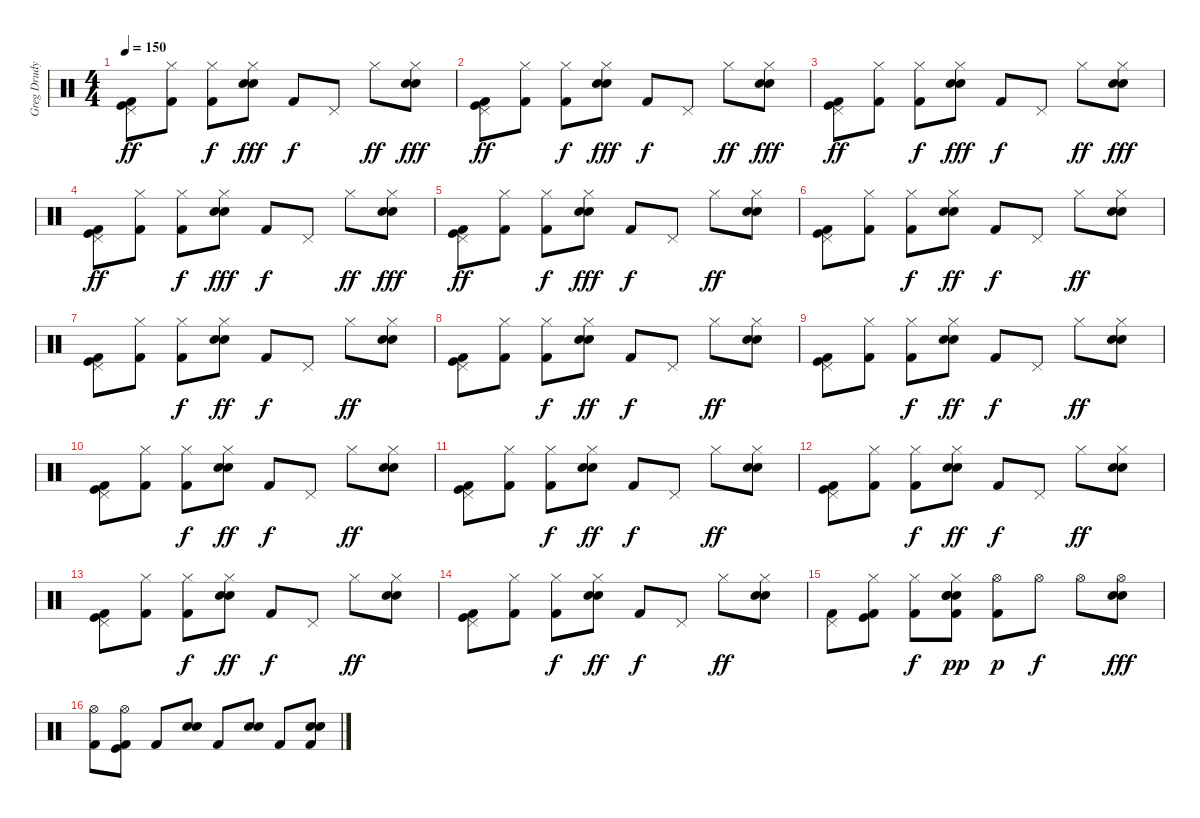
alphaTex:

\track ("Greg Drudy" "Greg Drudy") {instrument percussion}
\staff {score}
\articulation defaults
\ts (4 4)
\tempo 150
\clef neutral
\ks c
("Pedal Hi-Hat (hit)" "Kick (hit)" "Kick (hit) 2").8{dy ff} ("Hi-Hat (closed)" "Kick (hit) 2").8 ("Hi-Hat (closed)" "Kick (hit) 2").8{dy f} ("Hi-Hat (closed)" "Snare (hit) 2" "Snare (hit) 2").8{dy fff} "Kick (hit) 2".8{dy f} "Pedal Hi-Hat (hit)".8 "Hi-Hat (closed)".8{dy ff} ("Hi-Hat (closed)" "Snare (hit) 2" "Snare (hit) 2").8{dy fff} |
("Pedal Hi-Hat (hit)" "Kick (hit)" "Kick (hit) 2").8{dy ff} ("Hi-Hat (closed)" "Kick (hit) 2").8 ("Hi-Hat (closed)" "Kick (hit) 2").8{dy f} ("Hi-Hat (closed)" "Snare (hit) 2" "Snare (hit) 2").8{dy fff} "Kick (hit) 2".8{dy f} "Pedal Hi-Hat (hit)".8 "Hi-Hat (closed)".8{dy ff} ("Hi-Hat (closed)" "Snare (hit) 2" "Snare (hit) 2").8{dy fff} |
("Pedal Hi-Hat (hit)" "Kick (hit)" "Kick (hit) 2").8{dy ff} ("Hi-Hat (closed)" "Kick (hit) 2").8 ("Hi-Hat (closed)" "Kick (hit) 2").8{dy f} ("Hi-Hat (closed)" "Snare (hit) 2" "Snare (hit) 2").8{dy fff} "Kick (hit) 2".8{dy f} "Pedal Hi-Hat (hit)".8 "Hi-Hat (closed)".8{dy ff} ("Hi-Hat (closed)" "Snare (hit) 2" "Snare (hit) 2").8{dy fff} |
("Pedal Hi-Hat (hit)" "Kick (hit)" "Kick (hit) 2").8{dy ff} ("Hi-Hat (closed)" "Kick (hit) 2").8 ("Hi-Hat (closed)" "Kick (hit) 2").8{dy f} ("Hi-Hat (closed)" "Snare (hit) 2" "Snare (hit) 2").8{dy fff} "Kick (hit) 2".8{dy f} "Pedal Hi-Hat (hit)".8 "Hi-Hat (closed)".8{dy ff} ("Hi-Hat (closed)" "Snare (hit) 2" "Snare (hit) 2").8{dy fff} |
("Pedal Hi-Hat (hit)" "Kick (hit)" "Kick (hit) 2").8{dy ff} ("Hi-Hat (closed)" "Kick (hit) 2").8 ("Hi-Hat (closed)" "Kick (hit) 2").8{dy f} ("Hi-Hat (closed)" "Snare (hit) 2" "Snare (hit) 2").8{dy fff} "Kick (hit) 2".8{dy f} "Pedal Hi-Hat (hit)".8 "Hi-Hat (closed)".8{dy ff} ("Hi-Hat (closed)" "Snare (hit) 2" "Snare (hit) 2").8 |
("Pedal Hi-Hat (hit)" "Kick (hit)" "Kick (hit) 2").8 ("Hi-Hat (closed)" "Kick (hit) 2").8 ("Hi-Hat (closed)" "Kick (hit) 2").8{dy f} ("Hi-Hat (closed)" "Snare (hit) 2" "Snare (hit) 2").8{dy ff} "Kick (hit) 2".8{dy f} "Pedal Hi-Hat (hit)".8 "Hi-Hat (closed)".8{dy ff} ("Hi-Hat (closed)" "Snare (hit) 2" "Snare (hit) 2").8 |
("Pedal Hi-Hat (hit)" "Kick (hit)" "Kick (hit) 2").8 ("Hi-Hat (closed)" "Kick (hit) 2").8 ("Hi-Hat (closed)" "Kick (hit) 2").8{dy f} ("Hi-Hat (closed)" "Snare (hit) 2" "Snare (hit) 2").8{dy ff} "Kick (hit) 2".8{dy f} "Pedal Hi-Hat (hit)".8 "Hi-Hat (closed)".8{dy ff} ("Hi-Hat (closed)" "Snare (hit) 2" "Snare (hit) 2").8 |
("Pedal Hi-Hat (hit)" "Kick (hit)" "Kick (hit) 2").8 ("Hi-Hat (closed)" "Kick (hit) 2").8 ("Hi-Hat (closed)" "Kick (hit) 2").8{dy f} ("Hi-Hat (closed)" "Snare (hit) 2" "Snare (hit) 2").8{dy ff} "Kick (hit) 2".8{dy f} "Pedal Hi-Hat (hit)".8 "Hi-Hat (closed)".8{dy ff} ("Hi-Hat (closed)" "Snare (hit) 2" "Snare (hit) 2").8 |
("Pedal Hi-Hat (hit)" "Kick (hit)" "Kick (hit) 2").8 ("Hi-Hat (closed)" "Kick (hit) 2").8 ("Hi-Hat (closed)" "Kick (hit) 2").8{dy f} ("Hi-Hat (closed)" "Snare (hit) 2" "Snare (hit) 2").8{dy ff} "Kick (hit) 2".8{dy f} "Pedal Hi-Hat (hit)".8 "Hi-Hat (closed)".8{dy ff} ("Hi-Hat (closed)" "Snare (hit) 2" "Snare (hit) 2").8 |
("Pedal Hi-Hat (hit)" "Kick (hit)" "Kick (hit) 2").8 ("Hi-Hat (closed)" "Kick (hit) 2").8 ("Hi-Hat (closed)" "Kick (hit) 2").8{dy f} ("Hi-Hat (closed)" "Snare (hit) 2" "Snare (hit) 2").8{dy ff} "Kick (hit) 2".8{dy f} "Pedal Hi-Hat (hit)".8 "Hi-Hat (closed)".8{dy ff} ("Hi-Hat (closed)" "Snare (hit) 2" "Snare (hit) 2").8 |
("Pedal Hi-Hat (hit)" "Kick (hit)" "Kick (hit) 2").8 ("Hi-Hat (closed)" "Kick (hit) 2").8 ("Hi-Hat (closed)" "Kick (hit) 2").8{dy f} ("Hi-Hat (closed)" "Snare (hit) 2" "Snare (hit) 2").8{dy ff} "Kick (hit) 2".8{dy f} "Pedal Hi-Hat (hit)".8 "Hi-Hat (closed)".8{dy ff} ("Hi-Hat (closed)" "Snare (hit) 2" "Snare (hit) 2").8 |
("Pedal Hi-Hat (hit)" "Kick (hit)" "Kick (hit) 2").8 ("Hi-Hat (closed)" "Kick (hit) 2").8 ("Hi-Hat (closed)" "Kick (hit) 2").8{dy f} ("Hi-Hat (closed)" "Snare (hit) 2" "Snare (hit) 2").8{dy ff} "Kick (hit) 2".8{dy f} "Pedal Hi-Hat (hit)".8 "Hi-Hat (closed)".8{dy ff} ("Hi-Hat (closed)" "Snare (hit) 2" "Snare (hit) 2").8 |
("Pedal Hi-Hat (hit)" "Kick (hit)" "Kick (hit) 2").8 ("Hi-Hat (closed)" "Kick (hit) 2").8 ("Hi-Hat (closed)" "Kick (hit) 2").8{dy f} ("Hi-Hat (closed)" "Snare (hit) 2" "Snare (hit) 2").8{dy ff} "Kick (hit) 2".8{dy f} "Pedal Hi-Hat (hit)".8 "Hi-Hat (closed)".8{dy ff} ("Hi-Hat (closed)" "Snare (hit) 2" "Snare (hit) 2").8 |
("Pedal Hi-Hat (hit)" "Kick (hit)" "Kick (hit) 2").8 ("Hi-Hat (closed)" "Kick (hit) 2").8 ("Hi-Hat (closed)" "Kick (hit) 2").8{dy f} ("Hi-Hat (closed)" "Snare (hit) 2" "Snare (hit) 2").8{dy ff} "Kick (hit) 2".8{dy f} "Pedal Hi-Hat (hit)".8 "Hi-Hat (closed)".8{dy ff} ("Hi-Hat (closed)" "Snare (hit) 2" "Snare (hit) 2").8 |
("Pedal Hi-Hat (hit)" "Kick (hit) 2").8 ("Hi-Hat (closed)" "Kick (hit)" "Kick (hit) 2").8 ("Hi-Hat (closed)" "Kick (hit) 2").8{dy f} ("Hi-Hat (closed)" "Snare (hit) 2" "Snare (hit) 2" "Electric Snare (hit)" "Kick (hit) 2").8{dy pp} ("Hi-Hat (open)" "Kick (hit) 2").8{dy p} "Hi-Hat (open)".8{dy f} "Hi-Hat (open)".8 ("Hi-Hat (open)" "Snare (hit) 2" "Snare (hit) 2").8{dy fff} |
("Hi-Hat (open)" "Kick (hit) 2").8 ("Hi-Hat (open)" "Kick (hit)" "Kick (hit) 2").8 "Kick (hit) 2".8 ("Snare (hit) 2" "Snare (hit) 2").8 "Kick (hit) 2".8 ("Snare (hit) 2" "Snare (hit) 2").8 "Kick (hit) 2".8 ("Snare (hit) 2" "Snare (hit) 2" "Kick (hit) 2").8
